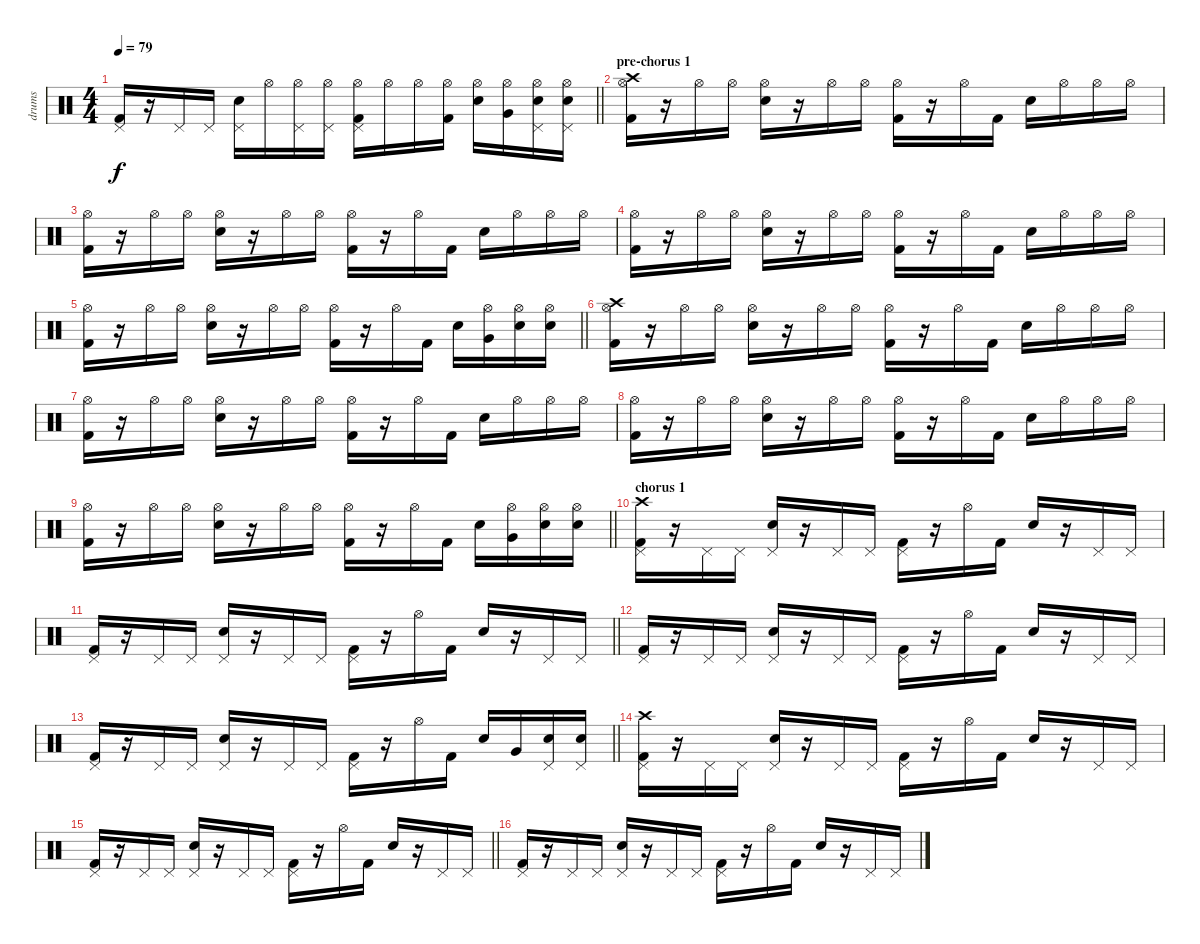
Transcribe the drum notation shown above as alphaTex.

\track ("drums" "drums") {instrument percussion}
\staff {score}
\articulation defaults
\ts (4 4)
\tempo 79
\clef neutral
\barLineRight lightlight
\ks c
("Kick (hit) 2" "Pedal Hi-Hat (hit)").16{dy f} r.16 "Pedal Hi-Hat (hit)".16 "Pedal Hi-Hat (hit)".16 ("Electric Snare (hit)" "Pedal Hi-Hat (hit)").16 "Hi-Hat (open)".16 ("Pedal Hi-Hat (hit)" "Hi-Hat (open)").16 ("Pedal Hi-Hat (hit)" "Hi-Hat (open)").16 ("Kick (hit) 2" "Pedal Hi-Hat (hit)" "Hi-Hat (open)").16 "Hi-Hat (open)".16 "Hi-Hat (open)".16 ("Kick (hit) 2" "Hi-Hat (open)").16 ("Electric Snare (hit)" "Hi-Hat (open)").16 ("Very Low Tom (hit)" "Hi-Hat (open)").16 ("Electric Snare (hit)" "Pedal Hi-Hat (hit)" "Hi-Hat (open)").16 ("Electric Snare (hit)" "Pedal Hi-Hat (hit)" "Hi-Hat (open)").16 |
\section ("" "pre-chorus 1")
("Kick (hit) 2" "Hi-Hat (open)" "Crash high (hit)").16 r.16 "Hi-Hat (open)".16 "Hi-Hat (open)".16 ("Electric Snare (hit)" "Hi-Hat (open)").16 r.16 "Hi-Hat (open)".16 "Hi-Hat (open)".16 ("Kick (hit) 2" "Hi-Hat (open)").16 r.16 "Hi-Hat (open)".16 "Kick (hit) 2".16 "Electric Snare (hit)".16 "Hi-Hat (open)".16 "Hi-Hat (open)".16 "Hi-Hat (open)".16 |
("Kick (hit) 2" "Hi-Hat (open)").16 r.16 "Hi-Hat (open)".16 "Hi-Hat (open)".16 ("Electric Snare (hit)" "Hi-Hat (open)").16 r.16 "Hi-Hat (open)".16 "Hi-Hat (open)".16 ("Kick (hit) 2" "Hi-Hat (open)").16 r.16 "Hi-Hat (open)".16 "Kick (hit) 2".16 "Electric Snare (hit)".16 "Hi-Hat (open)".16 "Hi-Hat (open)".16 "Hi-Hat (open)".16 |
("Kick (hit) 2" "Hi-Hat (open)").16 r.16 "Hi-Hat (open)".16 "Hi-Hat (open)".16 ("Electric Snare (hit)" "Hi-Hat (open)").16 r.16 "Hi-Hat (open)".16 "Hi-Hat (open)".16 ("Kick (hit) 2" "Hi-Hat (open)").16 r.16 "Hi-Hat (open)".16 "Kick (hit) 2".16 "Electric Snare (hit)".16 "Hi-Hat (open)".16 "Hi-Hat (open)".16 "Hi-Hat (open)".16 |
\barLineRight lightlight
("Kick (hit) 2" "Hi-Hat (open)").16 r.16 "Hi-Hat (open)".16 "Hi-Hat (open)".16 ("Electric Snare (hit)" "Hi-Hat (open)").16 r.16 "Hi-Hat (open)".16 "Hi-Hat (open)".16 ("Kick (hit) 2" "Hi-Hat (open)").16 r.16 "Hi-Hat (open)".16 "Kick (hit) 2".16 "Electric Snare (hit)".16 ("Very Low Tom (hit)" "Hi-Hat (open)").16 ("Electric Snare (hit)" "Hi-Hat (open)").16 ("Electric Snare (hit)" "Hi-Hat (open)").16 |
("Kick (hit) 2" "Hi-Hat (open)" "Crash high (hit)").16 r.16 "Hi-Hat (open)".16 "Hi-Hat (open)".16 ("Electric Snare (hit)" "Hi-Hat (open)").16 r.16 "Hi-Hat (open)".16 "Hi-Hat (open)".16 ("Kick (hit) 2" "Hi-Hat (open)").16 r.16 "Hi-Hat (open)".16 "Kick (hit) 2".16 "Electric Snare (hit)".16 "Hi-Hat (open)".16 "Hi-Hat (open)".16 "Hi-Hat (open)".16 |
("Kick (hit) 2" "Hi-Hat (open)").16 r.16 "Hi-Hat (open)".16 "Hi-Hat (open)".16 ("Electric Snare (hit)" "Hi-Hat (open)").16 r.16 "Hi-Hat (open)".16 "Hi-Hat (open)".16 ("Kick (hit) 2" "Hi-Hat (open)").16 r.16 "Hi-Hat (open)".16 "Kick (hit) 2".16 "Electric Snare (hit)".16 "Hi-Hat (open)".16 "Hi-Hat (open)".16 "Hi-Hat (open)".16 |
("Kick (hit) 2" "Hi-Hat (open)").16 r.16 "Hi-Hat (open)".16 "Hi-Hat (open)".16 ("Electric Snare (hit)" "Hi-Hat (open)").16 r.16 "Hi-Hat (open)".16 "Hi-Hat (open)".16 ("Kick (hit) 2" "Hi-Hat (open)").16 r.16 "Hi-Hat (open)".16 "Kick (hit) 2".16 "Electric Snare (hit)".16 "Hi-Hat (open)".16 "Hi-Hat (open)".16 "Hi-Hat (open)".16 |
\barLineRight lightlight
("Kick (hit) 2" "Hi-Hat (open)").16 r.16 "Hi-Hat (open)".16 "Hi-Hat (open)".16 ("Electric Snare (hit)" "Hi-Hat (open)").16 r.16 "Hi-Hat (open)".16 "Hi-Hat (open)".16 ("Kick (hit) 2" "Hi-Hat (open)").16 r.16 "Hi-Hat (open)".16 "Kick (hit) 2".16 "Electric Snare (hit)".16 ("Very Low Tom (hit)" "Hi-Hat (open)").16 ("Electric Snare (hit)" "Hi-Hat (open)").16 ("Electric Snare (hit)" "Hi-Hat (open)").16 |
\section ("" "chorus 1")
("Kick (hit) 2" "Pedal Hi-Hat (hit)" "Crash high (hit)").16 r.16 "Pedal Hi-Hat (hit)".16 "Pedal Hi-Hat (hit)".16 ("Electric Snare (hit)" "Pedal Hi-Hat (hit)").16 r.16 "Pedal Hi-Hat (hit)".16 "Pedal Hi-Hat (hit)".16 ("Kick (hit) 2" "Pedal Hi-Hat (hit)").16 r.16 "Hi-Hat (open)".16 "Kick (hit) 2".16 "Electric Snare (hit)".16 r.16 "Pedal Hi-Hat (hit)".16 "Pedal Hi-Hat (hit)".16 |
\barLineRight lightlight
("Kick (hit) 2" "Pedal Hi-Hat (hit)").16 r.16 "Pedal Hi-Hat (hit)".16 "Pedal Hi-Hat (hit)".16 ("Electric Snare (hit)" "Pedal Hi-Hat (hit)").16 r.16 "Pedal Hi-Hat (hit)".16 "Pedal Hi-Hat (hit)".16 ("Kick (hit) 2" "Pedal Hi-Hat (hit)").16 r.16 "Hi-Hat (open)".16 "Kick (hit) 2".16 "Electric Snare (hit)".16 r.16 "Pedal Hi-Hat (hit)".16 "Pedal Hi-Hat (hit)".16 |
("Kick (hit) 2" "Pedal Hi-Hat (hit)").16 r.16 "Pedal Hi-Hat (hit)".16 "Pedal Hi-Hat (hit)".16 ("Electric Snare (hit)" "Pedal Hi-Hat (hit)").16 r.16 "Pedal Hi-Hat (hit)".16 "Pedal Hi-Hat (hit)".16 ("Kick (hit) 2" "Pedal Hi-Hat (hit)").16 r.16 "Hi-Hat (open)".16 "Kick (hit) 2".16 "Electric Snare (hit)".16 r.16 "Pedal Hi-Hat (hit)".16 "Pedal Hi-Hat (hit)".16 |
\barLineRight lightlight
("Kick (hit) 2" "Pedal Hi-Hat (hit)").16 r.16 "Pedal Hi-Hat (hit)".16 "Pedal Hi-Hat (hit)".16 ("Electric Snare (hit)" "Pedal Hi-Hat (hit)").16 r.16 "Pedal Hi-Hat (hit)".16 "Pedal Hi-Hat (hit)".16 ("Kick (hit) 2" "Pedal Hi-Hat (hit)").16 r.16 "Hi-Hat (open)".16 "Kick (hit) 2".16 "Electric Snare (hit)".16 "Very Low Tom (hit)".16 ("Electric Snare (hit)" "Pedal Hi-Hat (hit)").16 ("Electric Snare (hit)" "Pedal Hi-Hat (hit)").16 |
("Kick (hit) 2" "Pedal Hi-Hat (hit)" "Crash high (hit)").16 r.16 "Pedal Hi-Hat (hit)".16 "Pedal Hi-Hat (hit)".16 ("Electric Snare (hit)" "Pedal Hi-Hat (hit)").16 r.16 "Pedal Hi-Hat (hit)".16 "Pedal Hi-Hat (hit)".16 ("Kick (hit) 2" "Pedal Hi-Hat (hit)").16 r.16 "Hi-Hat (open)".16 "Kick (hit) 2".16 "Electric Snare (hit)".16 r.16 "Pedal Hi-Hat (hit)".16 "Pedal Hi-Hat (hit)".16 |
\barLineRight lightlight
("Kick (hit) 2" "Pedal Hi-Hat (hit)").16 r.16 "Pedal Hi-Hat (hit)".16 "Pedal Hi-Hat (hit)".16 ("Electric Snare (hit)" "Pedal Hi-Hat (hit)").16 r.16 "Pedal Hi-Hat (hit)".16 "Pedal Hi-Hat (hit)".16 ("Kick (hit) 2" "Pedal Hi-Hat (hit)").16 r.16 "Hi-Hat (open)".16 "Kick (hit) 2".16 "Electric Snare (hit)".16 r.16 "Pedal Hi-Hat (hit)".16 "Pedal Hi-Hat (hit)".16 |
("Kick (hit) 2" "Pedal Hi-Hat (hit)").16 r.16 "Pedal Hi-Hat (hit)".16 "Pedal Hi-Hat (hit)".16 ("Electric Snare (hit)" "Pedal Hi-Hat (hit)").16 r.16 "Pedal Hi-Hat (hit)".16 "Pedal Hi-Hat (hit)".16 ("Kick (hit) 2" "Pedal Hi-Hat (hit)").16 r.16 "Hi-Hat (open)".16 "Kick (hit) 2".16 "Electric Snare (hit)".16 r.16 "Pedal Hi-Hat (hit)".16 "Pedal Hi-Hat (hit)".16
